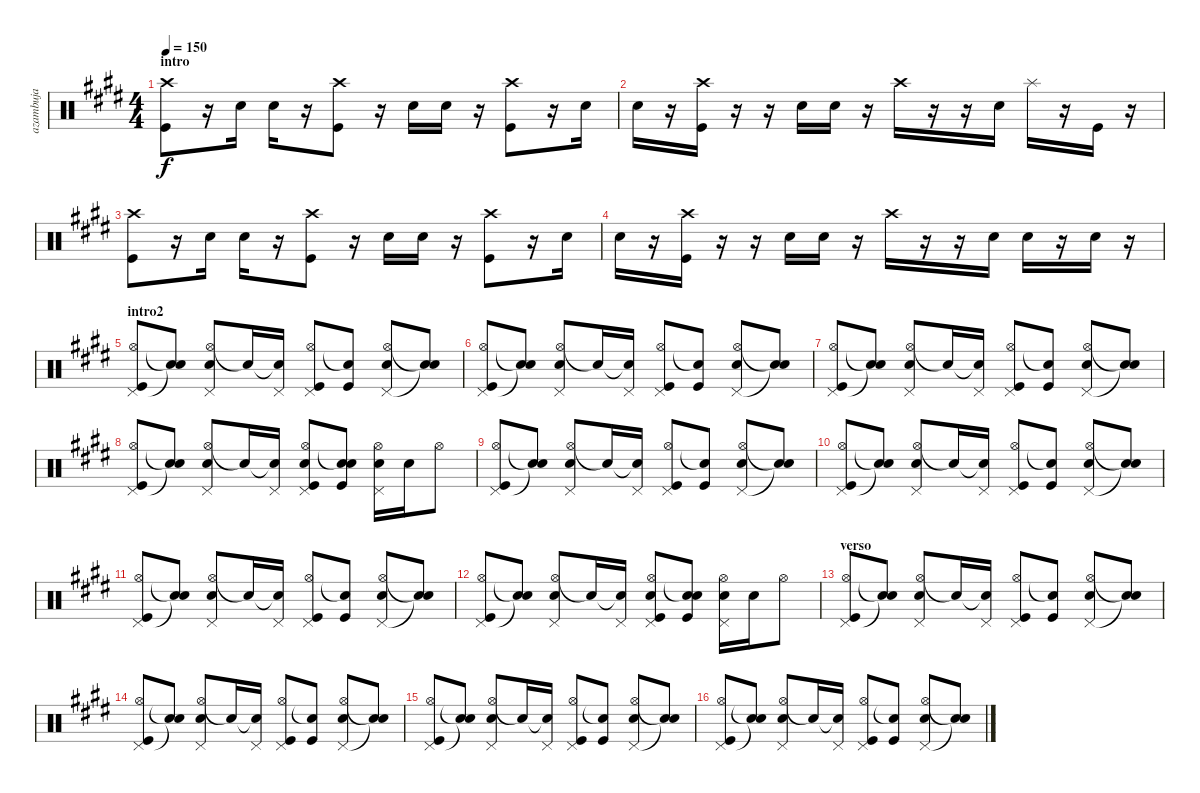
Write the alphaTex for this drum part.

\track ("azambuja" "azambuja") {instrument percussion}
\staff {score}
\articulation defaults
\ts (4 4)
\section ("" "intro")
\tempo 150
\clef neutral
\ks e
("Crash high (hit)" "Kick (hit)").8{dy f} r.16 "Snare (hit) 2".16 "Snare (hit) 2".16 r.16 ("Crash high (hit)" "Kick (hit)").8 r.16 "Snare (hit) 2".16 "Snare (hit) 2".16 r.16 ("Crash high (hit)" "Kick (hit)").8 r.16 "Snare (hit) 2".16 |
"Snare (hit) 2".16 r.16 ("Crash high (hit)" "Kick (hit)").16 r.16 r.16 "Snare (hit) 2".16 "Snare (hit) 2".16 r.16 "Crash high (hit)".16 r.16 r.16 "Snare (hit) 2".16 "Splash (hit)".16 r.16 "Kick (hit)".16 r.16 |
("Crash high (hit)" "Kick (hit)").8 r.16 "Snare (hit) 2".16 "Snare (hit) 2".16 r.16 ("Crash high (hit)" "Kick (hit)").8 r.16 "Snare (hit) 2".16 "Snare (hit) 2".16 r.16 ("Crash high (hit)" "Kick (hit)").8 r.16 "Snare (hit) 2".16 |
"Snare (hit) 2".16 r.16 ("Crash high (hit)" "Kick (hit)").16 r.16 r.16 "Snare (hit) 2".16 "Snare (hit) 2".16 r.16 "Crash high (hit)".16 r.16 r.16 "Snare (hit) 2".16 "Snare (hit) 2".16 r.16 "Snare (hit) 2".16 r.16 |
\section ("" "intro2")
("Hi-Hat (open)" "Pedal Hi-Hat (hit)" "Kick (hit)").8 ("Snare (hit)"{t} "Snare (hit)"{t}).8 ("Hi-Hat (open)" "Pedal Hi-Hat (hit)" "Snare (hit) 2").8 "Snare (hit)"{t}.16 ("Snare (hit)"{t} "Pedal Hi-Hat (hit)").16 ("Hi-Hat (open)" "Pedal Hi-Hat (hit)" "Kick (hit)").8 ("Snare (hit)"{t} "Kick (hit)").8 ("Hi-Hat (open)" "Pedal Hi-Hat (hit)" "Snare (hit) 2").8 ("Snare (hit)"{t} "Snare (hit)"{t}).8 |
("Hi-Hat (open)" "Pedal Hi-Hat (hit)" "Kick (hit)").8 ("Snare (hit)"{t} "Snare (hit)"{t}).8 ("Hi-Hat (open)" "Pedal Hi-Hat (hit)" "Snare (hit) 2").8 "Snare (hit)"{t}.16 ("Snare (hit)"{t} "Pedal Hi-Hat (hit)").16 ("Hi-Hat (open)" "Pedal Hi-Hat (hit)" "Kick (hit)").8 ("Snare (hit)"{t} "Kick (hit)").8 ("Hi-Hat (open)" "Pedal Hi-Hat (hit)" "Snare (hit) 2").8 ("Snare (hit)"{t} "Snare (hit)"{t}).8 |
("Hi-Hat (open)" "Pedal Hi-Hat (hit)" "Kick (hit)").8 ("Snare (hit)"{t} "Snare (hit)"{t}).8 ("Hi-Hat (open)" "Pedal Hi-Hat (hit)" "Snare (hit) 2").8 "Snare (hit)"{t}.16 ("Snare (hit)"{t} "Pedal Hi-Hat (hit)").16 ("Hi-Hat (open)" "Pedal Hi-Hat (hit)" "Kick (hit)").8 ("Snare (hit)"{t} "Kick (hit)").8 ("Hi-Hat (open)" "Pedal Hi-Hat (hit)" "Snare (hit) 2").8 ("Snare (hit)"{t} "Snare (hit)"{t}).8 |
("Hi-Hat (open)" "Pedal Hi-Hat (hit)" "Kick (hit)").8 ("Snare (hit)"{t} "Snare (hit)"{t}).8 ("Hi-Hat (open)" "Pedal Hi-Hat (hit)" "Snare (hit) 2").8 "Snare (hit)"{t}.16 ("Snare (hit)"{t} "Pedal Hi-Hat (hit)").16 ("Hi-Hat (open)" "Pedal Hi-Hat (hit)" "Snare (hit) 2" "Kick (hit)").8 ("Snare (hit)"{t} "Snare (hit) 2" "Kick (hit)").8 ("Hi-Hat (open)" "Pedal Hi-Hat (hit)" "Snare (hit) 2").16 "Snare (hit) 2".16 "Hi-Hat (open)".8 |
("Hi-Hat (open)" "Pedal Hi-Hat (hit)" "Kick (hit)").8 ("Snare (hit)"{t} "Snare (hit)"{t}).8 ("Hi-Hat (open)" "Pedal Hi-Hat (hit)" "Snare (hit) 2").8 "Snare (hit)"{t}.16 ("Snare (hit)"{t} "Pedal Hi-Hat (hit)").16 ("Hi-Hat (open)" "Pedal Hi-Hat (hit)" "Kick (hit)").8 ("Snare (hit)"{t} "Kick (hit)").8 ("Hi-Hat (open)" "Pedal Hi-Hat (hit)" "Snare (hit) 2").8 ("Snare (hit)"{t} "Snare (hit)"{t}).8 |
("Hi-Hat (open)" "Pedal Hi-Hat (hit)" "Kick (hit)").8 ("Snare (hit)"{t} "Snare (hit)"{t}).8 ("Hi-Hat (open)" "Pedal Hi-Hat (hit)" "Snare (hit) 2").8 "Snare (hit)"{t}.16 ("Snare (hit)"{t} "Pedal Hi-Hat (hit)").16 ("Hi-Hat (open)" "Pedal Hi-Hat (hit)" "Kick (hit)").8 ("Snare (hit)"{t} "Kick (hit)").8 ("Hi-Hat (open)" "Pedal Hi-Hat (hit)" "Snare (hit) 2").8 ("Snare (hit)"{t} "Snare (hit)"{t}).8 |
("Hi-Hat (open)" "Pedal Hi-Hat (hit)" "Kick (hit)").8 ("Snare (hit)"{t} "Snare (hit)"{t}).8 ("Hi-Hat (open)" "Pedal Hi-Hat (hit)" "Snare (hit) 2").8 "Snare (hit)"{t}.16 ("Snare (hit)"{t} "Pedal Hi-Hat (hit)").16 ("Hi-Hat (open)" "Pedal Hi-Hat (hit)" "Kick (hit)").8 ("Snare (hit)"{t} "Kick (hit)").8 ("Hi-Hat (open)" "Pedal Hi-Hat (hit)" "Snare (hit) 2").8 ("Snare (hit)"{t} "Snare (hit)"{t}).8 |
("Hi-Hat (open)" "Pedal Hi-Hat (hit)" "Kick (hit)").8 ("Snare (hit)"{t} "Snare (hit)"{t}).8 ("Hi-Hat (open)" "Pedal Hi-Hat (hit)" "Snare (hit) 2").8 "Snare (hit)"{t}.16 ("Snare (hit)"{t} "Pedal Hi-Hat (hit)").16 ("Hi-Hat (open)" "Pedal Hi-Hat (hit)" "Snare (hit) 2" "Kick (hit)").8 ("Snare (hit)"{t} "Snare (hit) 2" "Kick (hit)").8 ("Hi-Hat (open)" "Pedal Hi-Hat (hit)" "Snare (hit) 2").16 "Snare (hit) 2".16 "Hi-Hat (open)".8 |
\section ("" "verso")
("Hi-Hat (open)" "Pedal Hi-Hat (hit)" "Kick (hit)").8 ("Snare (hit)"{t} "Snare (hit)"{t}).8 ("Hi-Hat (open)" "Pedal Hi-Hat (hit)" "Snare (hit) 2").8 "Snare (hit)"{t}.16 ("Snare (hit)"{t} "Pedal Hi-Hat (hit)").16 ("Hi-Hat (open)" "Pedal Hi-Hat (hit)" "Kick (hit)").8 ("Snare (hit)"{t} "Kick (hit)").8 ("Hi-Hat (open)" "Pedal Hi-Hat (hit)" "Snare (hit) 2").8 ("Snare (hit)"{t} "Snare (hit)"{t}).8 |
("Hi-Hat (open)" "Pedal Hi-Hat (hit)" "Kick (hit)").8 ("Snare (hit)"{t} "Snare (hit)"{t}).8 ("Hi-Hat (open)" "Pedal Hi-Hat (hit)" "Snare (hit) 2").8 "Snare (hit)"{t}.16 ("Snare (hit)"{t} "Pedal Hi-Hat (hit)").16 ("Hi-Hat (open)" "Pedal Hi-Hat (hit)" "Kick (hit)").8 ("Snare (hit)"{t} "Kick (hit)").8 ("Hi-Hat (open)" "Pedal Hi-Hat (hit)" "Snare (hit) 2").8 ("Snare (hit)"{t} "Snare (hit)"{t}).8 |
("Hi-Hat (open)" "Pedal Hi-Hat (hit)" "Kick (hit)").8 ("Snare (hit)"{t} "Snare (hit)"{t}).8 ("Hi-Hat (open)" "Pedal Hi-Hat (hit)" "Snare (hit) 2").8 "Snare (hit)"{t}.16 ("Snare (hit)"{t} "Pedal Hi-Hat (hit)").16 ("Hi-Hat (open)" "Pedal Hi-Hat (hit)" "Kick (hit)").8 ("Snare (hit)"{t} "Kick (hit)").8 ("Hi-Hat (open)" "Pedal Hi-Hat (hit)" "Snare (hit) 2").8 ("Snare (hit)"{t} "Snare (hit)"{t}).8 |
("Hi-Hat (open)" "Pedal Hi-Hat (hit)" "Kick (hit)").8 ("Snare (hit)"{t} "Snare (hit)"{t}).8 ("Hi-Hat (open)" "Pedal Hi-Hat (hit)" "Snare (hit) 2").8 "Snare (hit)"{t}.16 ("Snare (hit)"{t} "Pedal Hi-Hat (hit)").16 ("Hi-Hat (open)" "Pedal Hi-Hat (hit)" "Kick (hit)").8 ("Snare (hit)"{t} "Kick (hit)").8 ("Hi-Hat (open)" "Pedal Hi-Hat (hit)" "Snare (hit) 2").8 ("Snare (hit)"{t} "Snare (hit)"{t}).8
